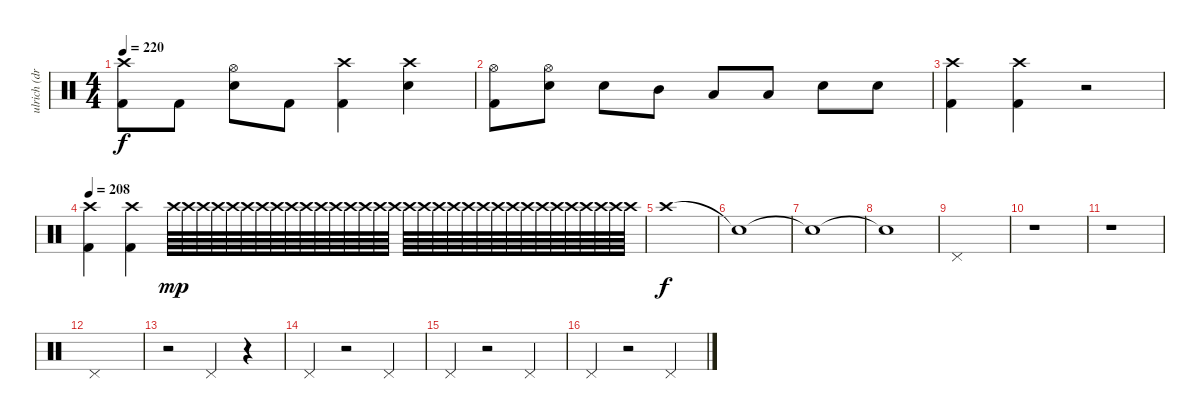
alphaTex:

\track ("ulrich (drums)" "ulrich (dr") {instrument percussion}
\staff {score}
\articulation defaults
\ts (4 4)
\tempo 220
\clef neutral
\ks c
("Crash high (hit)" "Kick (hit) 2").8{dy f} "Kick (hit) 2".8 ("Hi-Hat (open)" "Snare (hit) 2").8 "Kick (hit) 2".8 ("Crash high (hit)" "Kick (hit) 2").4 ("Crash high (hit)" "Snare (hit) 2").4 |
("Hi-Hat (open)" "Kick (hit) 2").8 ("Hi-Hat (open)" "Snare (hit) 2").8 "Snare (hit) 2".8 "Mid Tom (hit)".8 "Low Tom (hit)".8 "Low Tom (hit)".8 "Snare (hit) 2".8 "Snare (hit) 2".8 |
("Crash high (hit)" "Kick (hit) 2").4 ("Crash high (hit)" "Kick (hit) 2").4 r.2 |
\tempo 208
("Crash high (hit)" "Kick (hit) 2").4 ("Crash high (hit)" "Kick (hit) 2").4{volume 3} "Crash high (hit)".64{dy mp volume 14} "Crash high (hit)".64 "Crash high (hit)".64 "Crash high (hit)".64 "Crash high (hit)".64 "Crash high (hit)".64 "Crash high (hit)".64 "Crash high (hit)".64 "Crash high (hit)".64 "Crash high (hit)".64 "Crash high (hit)".64 "Crash high (hit)".64 "Crash high (hit)".64 "Crash high (hit)".64 "Crash high (hit)".64 "Crash high (hit)".64 "Crash high (hit)".64 "Crash high (hit)".64 "Crash high (hit)".64 "Crash high (hit)".64 "Crash high (hit)".64 "Crash high (hit)".64 "Crash high (hit)".64 "Crash high (hit)".64 "Crash high (hit)".64 "Crash high (hit)".64 "Crash high (hit)".64 "Crash high (hit)".64 "Crash high (hit)".64 "Crash high (hit)".64 "Crash high (hit)".64 "Crash high (hit)".64 |
"Crash high (hit)".1{dy f} |
"Snare (hit)"{t}.1 |
"Snare (hit)"{t}.1 |
"Snare (hit)"{t}.1 |
"Pedal Hi-Hat (hit)".1 |
r.1 |
r.1 |
"Pedal Hi-Hat (hit)".1 |
r.2 "Pedal Hi-Hat (hit)".4 r.4 |
"Pedal Hi-Hat (hit)".4 r.2 "Pedal Hi-Hat (hit)".4 |
"Pedal Hi-Hat (hit)".4 r.2 "Pedal Hi-Hat (hit)".4 |
"Pedal Hi-Hat (hit)".4 r.2 "Pedal Hi-Hat (hit)".4
